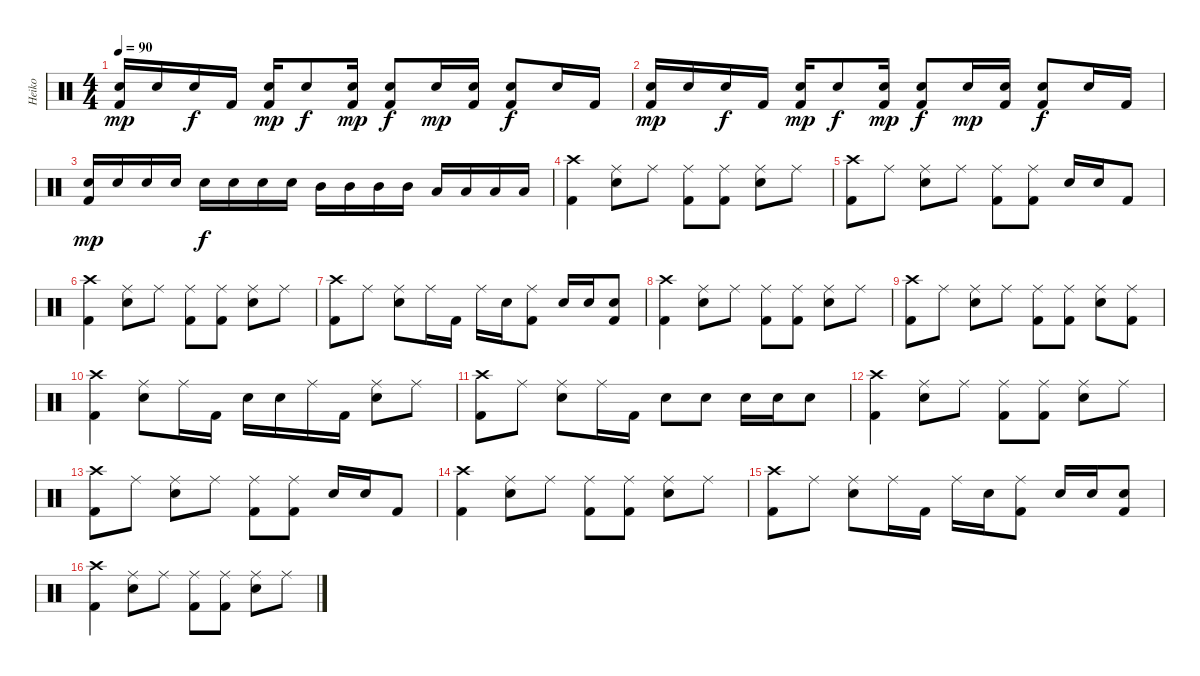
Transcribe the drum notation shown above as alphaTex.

\track ("Heiko" "Heiko") {instrument percussion}
\staff {score}
\articulation defaults
\ts (4 4)
\tempo 90
\clef neutral
\ks c
("Electric Snare (hit)" "Kick (hit) 2").16{dy mp} "Electric Snare (hit)".16 "Electric Snare (hit)".16{dy f} "Kick (hit) 2".16 ("Electric Snare (hit)" "Kick (hit) 2").16{dy mp} "Electric Snare (hit)".8{dy f} ("Electric Snare (hit)" "Kick (hit) 2").16{dy mp} ("Electric Snare (hit)" "Kick (hit) 2").8{dy f} "Electric Snare (hit)".16{dy mp} ("Electric Snare (hit)" "Kick (hit) 2").16 ("Electric Snare (hit)" "Kick (hit) 2").8{dy f} "Electric Snare (hit)".16 "Kick (hit) 2".16 |
("Electric Snare (hit)" "Kick (hit) 2").16{dy mp} "Electric Snare (hit)".16 "Electric Snare (hit)".16{dy f} "Kick (hit) 2".16 ("Electric Snare (hit)" "Kick (hit) 2").16{dy mp} "Electric Snare (hit)".8{dy f} ("Electric Snare (hit)" "Kick (hit) 2").16{dy mp} ("Electric Snare (hit)" "Kick (hit) 2").8{dy f} "Electric Snare (hit)".16{dy mp} ("Electric Snare (hit)" "Kick (hit) 2").16 ("Electric Snare (hit)" "Kick (hit) 2").8{dy f} "Electric Snare (hit)".16 "Kick (hit) 2".16 |
("Electric Snare (hit)" "Kick (hit) 2").16{dy mp} "Electric Snare (hit)".16 "Electric Snare (hit)".16 "Electric Snare (hit)".16 "Electric Snare (hit)".16{dy f} "Electric Snare (hit)".16 "Electric Snare (hit)".16 "Electric Snare (hit)".16 "Mid Tom (hit)".16 "Mid Tom (hit)".16 "Mid Tom (hit)".16 "Mid Tom (hit)".16 "Low Tom (hit)".16 "Low Tom (hit)".16 "Low Tom (hit)".16 "Low Tom (hit)".16 |
("Crash high (hit)" "Kick (hit) 2").4 ("Ride (middle)" "Electric Snare (hit)").8 "Ride (middle)".8 ("Ride (middle)" "Kick (hit) 2").8 ("Ride (middle)" "Kick (hit) 2").8 ("Ride (middle)" "Electric Snare (hit)").8 "Ride (middle)".8 |
("Crash high (hit)" "Kick (hit) 2").8 "Ride (middle)".8 ("Ride (middle)" "Electric Snare (hit)").8 "Ride (middle)".8 ("Ride (middle)" "Kick (hit) 2").8 ("Ride (middle)" "Kick (hit) 2").8 "Electric Snare (hit)".16 "Electric Snare (hit)".16 "Kick (hit) 2".8 |
("Crash high (hit)" "Kick (hit) 2").4 ("Ride (middle)" "Electric Snare (hit)").8 "Ride (middle)".8 ("Ride (middle)" "Kick (hit) 2").8 ("Ride (middle)" "Kick (hit) 2").8 ("Ride (middle)" "Electric Snare (hit)").8 "Ride (middle)".8 |
("Crash high (hit)" "Kick (hit) 2").8 "Ride (middle)".8 ("Ride (middle)" "Electric Snare (hit)").8 "Ride (middle)".16 "Kick (hit) 2".16 "Ride (middle)".16 "Electric Snare (hit)".16 ("Ride (middle)" "Kick (hit) 2").8 "Electric Snare (hit)".16 "Electric Snare (hit)".16 ("Electric Snare (hit)" "Kick (hit) 2").8 |
("Crash high (hit)" "Kick (hit) 2").4 ("Ride (middle)" "Electric Snare (hit)").8 "Ride (middle)".8 ("Ride (middle)" "Kick (hit) 2").8 ("Ride (middle)" "Kick (hit) 2").8 ("Ride (middle)" "Electric Snare (hit)").8 "Ride (middle)".8 |
("Crash high (hit)" "Kick (hit) 2").8 "Ride (middle)".8 ("Ride (middle)" "Electric Snare (hit)").8 "Ride (middle)".8 ("Ride (middle)" "Kick (hit) 2").8 ("Ride (middle)" "Kick (hit) 2").8 ("Ride (middle)" "Electric Snare (hit)").8 ("Ride (middle)" "Kick (hit) 2").8 |
("Crash high (hit)" "Kick (hit) 2").4 ("Ride (middle)" "Electric Snare (hit)").8 "Ride (middle)".16 "Kick (hit) 2".16 "Electric Snare (hit)".16 "Electric Snare (hit)".16 "Ride (middle)".16 "Kick (hit) 2".16 ("Ride (middle)" "Electric Snare (hit)").8 "Ride (middle)".8 |
("Crash high (hit)" "Kick (hit) 2").8 "Ride (middle)".8 ("Ride (middle)" "Electric Snare (hit)").8 "Ride (middle)".16 "Kick (hit) 2".16 "Electric Snare (hit)".8 "Electric Snare (hit)".8 "Electric Snare (hit)".16 "Electric Snare (hit)".16 "Electric Snare (hit)".8 |
("Crash high (hit)" "Kick (hit) 2").4 ("Ride (middle)" "Electric Snare (hit)").8 "Ride (middle)".8 ("Ride (middle)" "Kick (hit) 2").8 ("Ride (middle)" "Kick (hit) 2").8 ("Ride (middle)" "Electric Snare (hit)").8 "Ride (middle)".8 |
("Crash high (hit)" "Kick (hit) 2").8 "Ride (middle)".8 ("Ride (middle)" "Electric Snare (hit)").8 "Ride (middle)".8 ("Ride (middle)" "Kick (hit) 2").8 ("Ride (middle)" "Kick (hit) 2").8 "Electric Snare (hit)".16 "Electric Snare (hit)".16 "Kick (hit) 2".8 |
("Crash high (hit)" "Kick (hit) 2").4 ("Ride (middle)" "Electric Snare (hit)").8 "Ride (middle)".8 ("Ride (middle)" "Kick (hit) 2").8 ("Ride (middle)" "Kick (hit) 2").8 ("Ride (middle)" "Electric Snare (hit)").8 "Ride (middle)".8 |
("Crash high (hit)" "Kick (hit) 2").8 "Ride (middle)".8 ("Ride (middle)" "Electric Snare (hit)").8 "Ride (middle)".16 "Kick (hit) 2".16 "Ride (middle)".16 "Electric Snare (hit)".16 ("Ride (middle)" "Kick (hit) 2").8 "Electric Snare (hit)".16 "Electric Snare (hit)".16 ("Electric Snare (hit)" "Kick (hit) 2").8 |
("Crash high (hit)" "Kick (hit) 2").4 ("Ride (middle)" "Electric Snare (hit)").8 "Ride (middle)".8 ("Ride (middle)" "Kick (hit) 2").8 ("Ride (middle)" "Kick (hit) 2").8 ("Ride (middle)" "Electric Snare (hit)").8 "Ride (middle)".8
